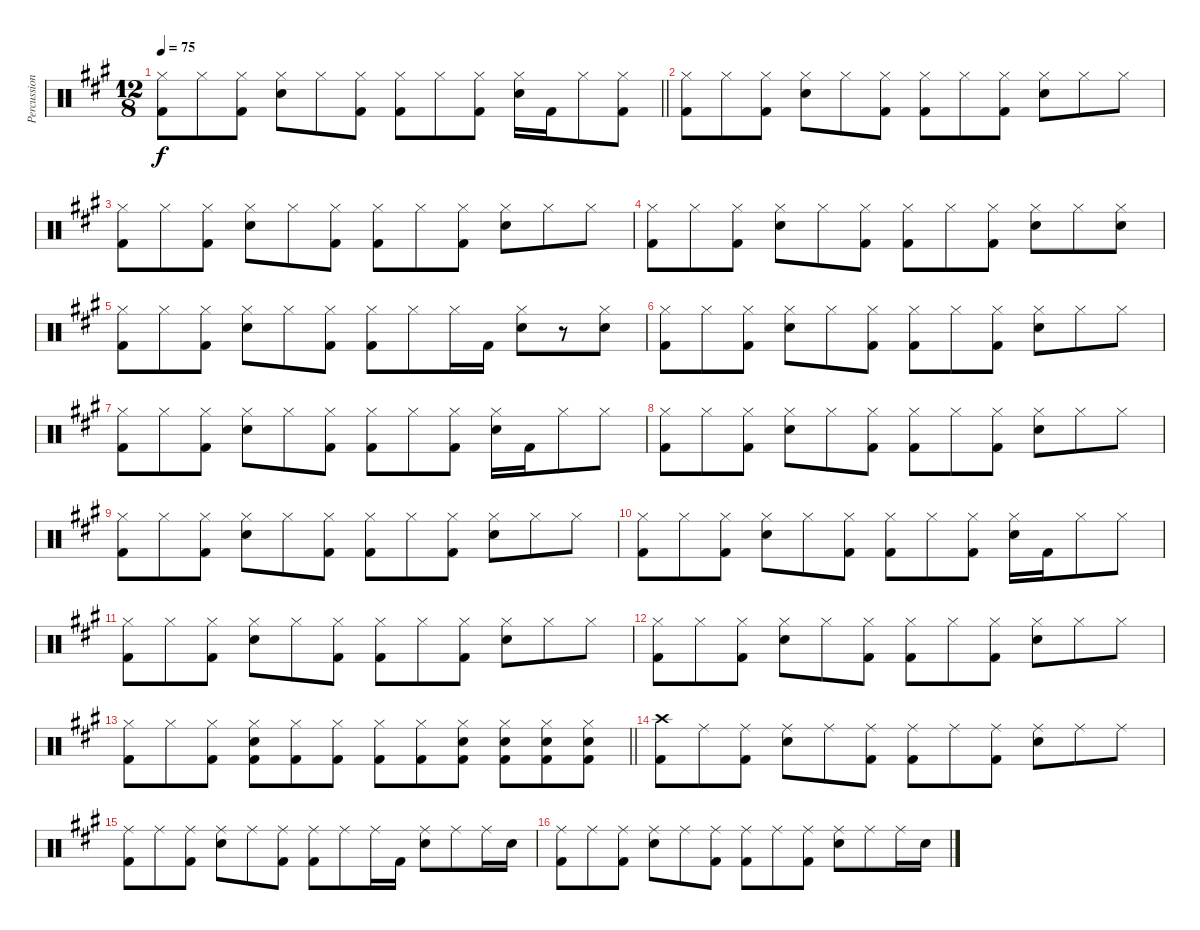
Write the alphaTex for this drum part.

\track ("Percussion" "Percussion") {instrument percussion}
\staff {score}
\articulation defaults
\ts (12 8)
\tempo 75
\clef neutral
\barLineRight lightlight
\ks a
("Hi-Hat (closed)" "Kick (hit) 2").8{dy f} "Hi-Hat (closed)".8 ("Hi-Hat (closed)" "Kick (hit) 2").8 ("Hi-Hat (closed)" "Snare (hit) 2").8 "Hi-Hat (closed)".8 ("Hi-Hat (closed)" "Kick (hit) 2").8 ("Hi-Hat (closed)" "Kick (hit) 2").8 "Hi-Hat (closed)".8 ("Hi-Hat (closed)" "Kick (hit) 2").8 ("Hi-Hat (closed)" "Snare (hit) 2").16 "Kick (hit) 2".16 "Hi-Hat (closed)".8 ("Hi-Hat (closed)" "Kick (hit) 2").8 |
("Hi-Hat (closed)" "Kick (hit) 2").8 "Hi-Hat (closed)".8 ("Hi-Hat (closed)" "Kick (hit) 2").8 ("Hi-Hat (closed)" "Snare (hit) 2").8 "Hi-Hat (closed)".8 ("Hi-Hat (closed)" "Kick (hit) 2").8 ("Hi-Hat (closed)" "Kick (hit) 2").8 "Hi-Hat (closed)".8 ("Hi-Hat (closed)" "Kick (hit) 2").8 ("Hi-Hat (closed)" "Snare (hit) 2").8 "Hi-Hat (closed)".8 "Hi-Hat (closed)".8 |
("Hi-Hat (closed)" "Kick (hit) 2").8 "Hi-Hat (closed)".8 ("Hi-Hat (closed)" "Kick (hit) 2").8 ("Hi-Hat (closed)" "Snare (hit) 2").8 "Hi-Hat (closed)".8 ("Hi-Hat (closed)" "Kick (hit) 2").8 ("Hi-Hat (closed)" "Kick (hit) 2").8 "Hi-Hat (closed)".8 ("Hi-Hat (closed)" "Kick (hit) 2").8 ("Hi-Hat (closed)" "Snare (hit) 2").8 "Hi-Hat (closed)".8 "Hi-Hat (closed)".8 |
("Hi-Hat (closed)" "Kick (hit) 2").8 "Hi-Hat (closed)".8 ("Hi-Hat (closed)" "Kick (hit) 2").8 ("Hi-Hat (closed)" "Snare (hit) 2").8 "Hi-Hat (closed)".8 ("Hi-Hat (closed)" "Kick (hit) 2").8 ("Hi-Hat (closed)" "Kick (hit) 2").8 "Hi-Hat (closed)".8 ("Hi-Hat (closed)" "Kick (hit) 2").8 ("Hi-Hat (closed)" "Snare (hit) 2").8 "Hi-Hat (closed)".8 ("Hi-Hat (closed)" "Snare (hit) 2").8 |
("Hi-Hat (closed)" "Kick (hit) 2").8 "Hi-Hat (closed)".8 ("Hi-Hat (closed)" "Kick (hit) 2").8 ("Hi-Hat (closed)" "Snare (hit) 2").8 "Hi-Hat (closed)".8 ("Hi-Hat (closed)" "Kick (hit) 2").8 ("Hi-Hat (closed)" "Kick (hit) 2").8 "Hi-Hat (closed)".8 "Hi-Hat (closed)".16 "Kick (hit) 2".16 ("Hi-Hat (closed)" "Snare (hit) 2").8 r.8 ("Hi-Hat (closed)" "Snare (hit) 2").8 |
("Hi-Hat (closed)" "Kick (hit) 2").8 "Hi-Hat (closed)".8 ("Hi-Hat (closed)" "Kick (hit) 2").8 ("Hi-Hat (closed)" "Snare (hit) 2").8 "Hi-Hat (closed)".8 ("Hi-Hat (closed)" "Kick (hit) 2").8 ("Hi-Hat (closed)" "Kick (hit) 2").8 "Hi-Hat (closed)".8 ("Hi-Hat (closed)" "Kick (hit) 2").8 ("Hi-Hat (closed)" "Snare (hit) 2").8 "Hi-Hat (closed)".8 "Hi-Hat (closed)".8 |
("Hi-Hat (closed)" "Kick (hit) 2").8 "Hi-Hat (closed)".8 ("Hi-Hat (closed)" "Kick (hit) 2").8 ("Hi-Hat (closed)" "Snare (hit) 2").8 "Hi-Hat (closed)".8 ("Hi-Hat (closed)" "Kick (hit) 2").8 ("Hi-Hat (closed)" "Kick (hit) 2").8 "Hi-Hat (closed)".8 ("Hi-Hat (closed)" "Kick (hit) 2").8 ("Hi-Hat (closed)" "Snare (hit) 2").16 "Kick (hit) 2".16 "Hi-Hat (closed)".8 "Hi-Hat (closed)".8 |
("Hi-Hat (closed)" "Kick (hit) 2").8 "Hi-Hat (closed)".8 ("Hi-Hat (closed)" "Kick (hit) 2").8 ("Hi-Hat (closed)" "Snare (hit) 2").8 "Hi-Hat (closed)".8 ("Hi-Hat (closed)" "Kick (hit) 2").8 ("Hi-Hat (closed)" "Kick (hit) 2").8 "Hi-Hat (closed)".8 ("Hi-Hat (closed)" "Kick (hit) 2").8 ("Hi-Hat (closed)" "Snare (hit) 2").8 "Hi-Hat (closed)".8 "Hi-Hat (closed)".8 |
("Hi-Hat (closed)" "Kick (hit) 2").8 "Hi-Hat (closed)".8 ("Hi-Hat (closed)" "Kick (hit) 2").8 ("Hi-Hat (closed)" "Snare (hit) 2").8 "Hi-Hat (closed)".8 ("Hi-Hat (closed)" "Kick (hit) 2").8 ("Hi-Hat (closed)" "Kick (hit) 2").8 "Hi-Hat (closed)".8 ("Hi-Hat (closed)" "Kick (hit) 2").8 ("Hi-Hat (closed)" "Snare (hit) 2").8 "Hi-Hat (closed)".8 "Hi-Hat (closed)".8 |
("Hi-Hat (closed)" "Kick (hit) 2").8 "Hi-Hat (closed)".8 ("Hi-Hat (closed)" "Kick (hit) 2").8 ("Hi-Hat (closed)" "Snare (hit) 2").8 "Hi-Hat (closed)".8 ("Hi-Hat (closed)" "Kick (hit) 2").8 ("Hi-Hat (closed)" "Kick (hit) 2").8 "Hi-Hat (closed)".8 ("Hi-Hat (closed)" "Kick (hit) 2").8 ("Hi-Hat (closed)" "Snare (hit) 2").16 "Kick (hit) 2".16 "Hi-Hat (closed)".8 "Hi-Hat (closed)".8 |
("Hi-Hat (closed)" "Kick (hit) 2").8 "Hi-Hat (closed)".8 ("Hi-Hat (closed)" "Kick (hit) 2").8 ("Hi-Hat (closed)" "Snare (hit) 2").8 "Hi-Hat (closed)".8 ("Hi-Hat (closed)" "Kick (hit) 2").8 ("Hi-Hat (closed)" "Kick (hit) 2").8 "Hi-Hat (closed)".8 ("Hi-Hat (closed)" "Kick (hit) 2").8 ("Hi-Hat (closed)" "Snare (hit) 2").8 "Hi-Hat (closed)".8 "Hi-Hat (closed)".8 |
("Hi-Hat (closed)" "Kick (hit) 2").8 "Hi-Hat (closed)".8 ("Hi-Hat (closed)" "Kick (hit) 2").8 ("Hi-Hat (closed)" "Snare (hit) 2").8 "Hi-Hat (closed)".8 ("Hi-Hat (closed)" "Kick (hit) 2").8 ("Hi-Hat (closed)" "Kick (hit) 2").8 "Hi-Hat (closed)".8 ("Hi-Hat (closed)" "Kick (hit) 2").8 ("Hi-Hat (closed)" "Snare (hit) 2").8 "Hi-Hat (closed)".8 "Hi-Hat (closed)".8 |
\barLineRight lightlight
("Hi-Hat (closed)" "Kick (hit) 2").8 "Hi-Hat (closed)".8 ("Hi-Hat (closed)" "Kick (hit) 2").8 ("Hi-Hat (closed)" "Snare (hit) 2" "Kick (hit) 2").8 ("Hi-Hat (closed)" "Kick (hit) 2").8 ("Hi-Hat (closed)" "Kick (hit) 2").8 ("Hi-Hat (closed)" "Kick (hit) 2").8 ("Hi-Hat (closed)" "Kick (hit) 2").8 ("Hi-Hat (closed)" "Snare (hit) 2" "Kick (hit) 2").8 ("Hi-Hat (closed)" "Snare (hit) 2" "Kick (hit) 2").8 ("Hi-Hat (closed)" "Snare (hit) 2" "Kick (hit) 2").8 ("Hi-Hat (closed)" "Snare (hit) 2" "Kick (hit) 2").8 |
("Crash high (hit)" "Kick (hit) 2").8 "Ride (middle)".8 ("Ride (middle)" "Kick (hit) 2").8 ("Ride (middle)" "Snare (hit) 2").8 "Ride (middle)".8 ("Ride (middle)" "Kick (hit) 2").8 ("Ride (middle)" "Kick (hit) 2").8 "Ride (middle)".8 ("Ride (middle)" "Kick (hit) 2").8 ("Ride (middle)" "Snare (hit) 2").8 "Ride (middle)".8 "Ride (middle)".8 |
("Ride (middle)" "Kick (hit) 2").8 "Ride (middle)".8 ("Ride (middle)" "Kick (hit) 2").8 ("Ride (middle)" "Snare (hit) 2").8 "Ride (middle)".8 ("Ride (middle)" "Kick (hit) 2").8 ("Ride (middle)" "Kick (hit) 2").8 "Ride (middle)".8 "Ride (middle)".16 "Kick (hit) 2".16 ("Ride (middle)" "Snare (hit) 2").8 "Ride (middle)".8 "Ride (middle)".16 "Snare (hit) 2".16 |
("Ride (middle)" "Kick (hit) 2").8 "Ride (middle)".8 ("Ride (middle)" "Kick (hit) 2").8 ("Ride (middle)" "Snare (hit) 2").8 "Ride (middle)".8 ("Ride (middle)" "Kick (hit) 2").8 ("Ride (middle)" "Kick (hit) 2").8 "Ride (middle)".8 ("Ride (middle)" "Kick (hit) 2").8 ("Ride (middle)" "Snare (hit) 2").8 "Ride (middle)".8 "Ride (middle)".16 "Snare (hit) 2".16
